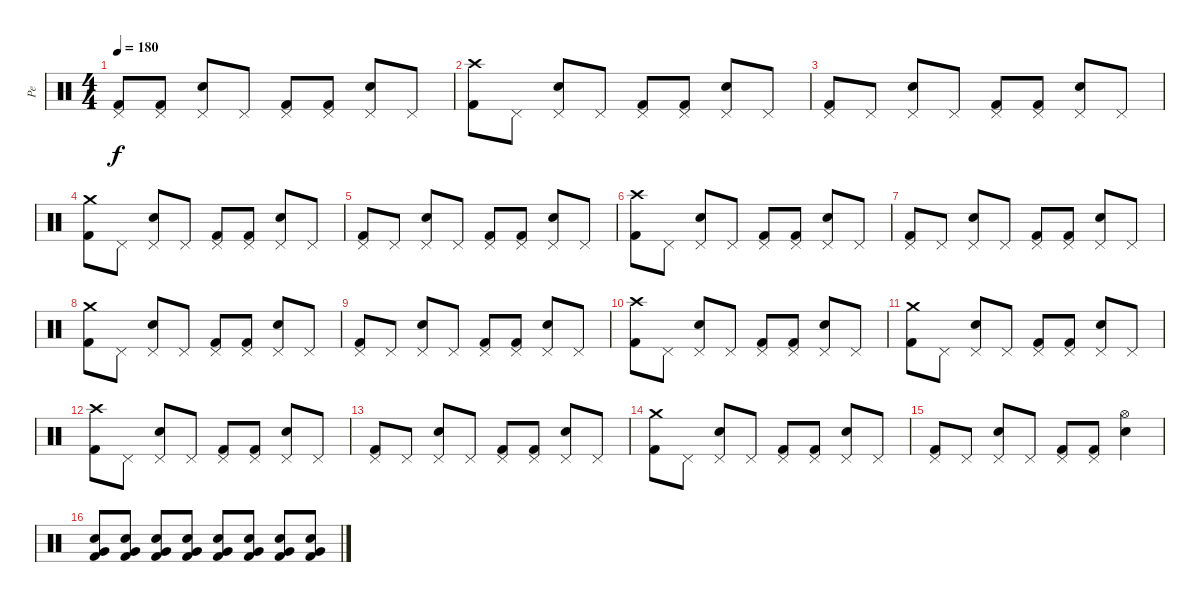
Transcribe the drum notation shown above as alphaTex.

\track ("Pe" "Pe") {instrument percussion}
\staff {score}
\articulation defaults
\ts (4 4)
\tempo 180
\clef neutral
\ks c
("Pedal Hi-Hat (hit)" "Kick (hit) 2").8{dy f} ("Pedal Hi-Hat (hit)" "Kick (hit) 2").8 ("Pedal Hi-Hat (hit)" "Electric Snare (hit)").8 "Pedal Hi-Hat (hit)".8 ("Pedal Hi-Hat (hit)" "Kick (hit) 2").8 ("Pedal Hi-Hat (hit)" "Kick (hit) 2").8 ("Pedal Hi-Hat (hit)" "Electric Snare (hit)").8 "Pedal Hi-Hat (hit)".8 |
("Crash high (hit)" "Kick (hit) 2").8 "Pedal Hi-Hat (hit)".8 ("Pedal Hi-Hat (hit)" "Electric Snare (hit)").8 "Pedal Hi-Hat (hit)".8 ("Pedal Hi-Hat (hit)" "Kick (hit) 2").8 ("Pedal Hi-Hat (hit)" "Kick (hit) 2").8 ("Pedal Hi-Hat (hit)" "Electric Snare (hit)").8 "Pedal Hi-Hat (hit)".8 |
("Pedal Hi-Hat (hit)" "Kick (hit) 2").8 "Pedal Hi-Hat (hit)".8 ("Pedal Hi-Hat (hit)" "Electric Snare (hit)").8 "Pedal Hi-Hat (hit)".8 ("Pedal Hi-Hat (hit)" "Kick (hit) 2").8 ("Pedal Hi-Hat (hit)" "Kick (hit) 2").8 ("Pedal Hi-Hat (hit)" "Electric Snare (hit)").8 "Pedal Hi-Hat (hit)".8 |
("Crash medium (hit)" "Kick (hit) 2").8 "Pedal Hi-Hat (hit)".8 ("Pedal Hi-Hat (hit)" "Electric Snare (hit)").8 "Pedal Hi-Hat (hit)".8 ("Pedal Hi-Hat (hit)" "Kick (hit) 2").8 ("Pedal Hi-Hat (hit)" "Kick (hit) 2").8 ("Pedal Hi-Hat (hit)" "Electric Snare (hit)").8 "Pedal Hi-Hat (hit)".8 |
("Pedal Hi-Hat (hit)" "Kick (hit) 2").8 "Pedal Hi-Hat (hit)".8 ("Pedal Hi-Hat (hit)" "Electric Snare (hit)").8 "Pedal Hi-Hat (hit)".8 ("Pedal Hi-Hat (hit)" "Kick (hit) 2").8 ("Pedal Hi-Hat (hit)" "Kick (hit) 2").8 ("Pedal Hi-Hat (hit)" "Electric Snare (hit)").8 "Pedal Hi-Hat (hit)".8 |
("Crash high (hit)" "Kick (hit) 2").8 "Pedal Hi-Hat (hit)".8 ("Pedal Hi-Hat (hit)" "Electric Snare (hit)").8 "Pedal Hi-Hat (hit)".8 ("Pedal Hi-Hat (hit)" "Kick (hit) 2").8 ("Pedal Hi-Hat (hit)" "Kick (hit) 2").8 ("Pedal Hi-Hat (hit)" "Electric Snare (hit)").8 "Pedal Hi-Hat (hit)".8 |
("Pedal Hi-Hat (hit)" "Kick (hit) 2").8 "Pedal Hi-Hat (hit)".8 ("Pedal Hi-Hat (hit)" "Electric Snare (hit)").8 "Pedal Hi-Hat (hit)".8 ("Pedal Hi-Hat (hit)" "Kick (hit) 2").8 ("Pedal Hi-Hat (hit)" "Kick (hit) 2").8 ("Pedal Hi-Hat (hit)" "Electric Snare (hit)").8 "Pedal Hi-Hat (hit)".8 |
("Crash medium (hit)" "Kick (hit) 2").8 "Pedal Hi-Hat (hit)".8 ("Pedal Hi-Hat (hit)" "Electric Snare (hit)").8 "Pedal Hi-Hat (hit)".8 ("Pedal Hi-Hat (hit)" "Kick (hit) 2").8 ("Pedal Hi-Hat (hit)" "Kick (hit) 2").8 ("Pedal Hi-Hat (hit)" "Electric Snare (hit)").8 "Pedal Hi-Hat (hit)".8 |
("Pedal Hi-Hat (hit)" "Kick (hit) 2").8 "Pedal Hi-Hat (hit)".8 ("Pedal Hi-Hat (hit)" "Electric Snare (hit)").8 "Pedal Hi-Hat (hit)".8 ("Pedal Hi-Hat (hit)" "Kick (hit) 2").8 ("Pedal Hi-Hat (hit)" "Kick (hit) 2").8 ("Pedal Hi-Hat (hit)" "Electric Snare (hit)").8 "Pedal Hi-Hat (hit)".8 |
("Crash high (hit)" "Kick (hit) 2").8 "Pedal Hi-Hat (hit)".8 ("Pedal Hi-Hat (hit)" "Electric Snare (hit)").8 "Pedal Hi-Hat (hit)".8 ("Pedal Hi-Hat (hit)" "Kick (hit) 2").8 ("Pedal Hi-Hat (hit)" "Kick (hit) 2").8 ("Pedal Hi-Hat (hit)" "Electric Snare (hit)").8 "Pedal Hi-Hat (hit)".8 |
("Crash medium (hit)" "Kick (hit) 2").8 "Pedal Hi-Hat (hit)".8 ("Pedal Hi-Hat (hit)" "Electric Snare (hit)").8 "Pedal Hi-Hat (hit)".8 ("Pedal Hi-Hat (hit)" "Kick (hit) 2").8 ("Pedal Hi-Hat (hit)" "Kick (hit) 2").8 ("Pedal Hi-Hat (hit)" "Electric Snare (hit)").8 "Pedal Hi-Hat (hit)".8 |
("Crash high (hit)" "Kick (hit) 2").8 "Pedal Hi-Hat (hit)".8 ("Pedal Hi-Hat (hit)" "Electric Snare (hit)").8 "Pedal Hi-Hat (hit)".8 ("Pedal Hi-Hat (hit)" "Kick (hit) 2").8 ("Pedal Hi-Hat (hit)" "Kick (hit) 2").8 ("Pedal Hi-Hat (hit)" "Electric Snare (hit)").8 "Pedal Hi-Hat (hit)".8 |
("Pedal Hi-Hat (hit)" "Kick (hit) 2").8 "Pedal Hi-Hat (hit)".8 ("Pedal Hi-Hat (hit)" "Electric Snare (hit)").8 "Pedal Hi-Hat (hit)".8 ("Pedal Hi-Hat (hit)" "Kick (hit) 2").8 ("Pedal Hi-Hat (hit)" "Kick (hit) 2").8 ("Pedal Hi-Hat (hit)" "Electric Snare (hit)").8 "Pedal Hi-Hat (hit)".8 |
("Crash medium (hit)" "Kick (hit) 2").8 "Pedal Hi-Hat (hit)".8 ("Pedal Hi-Hat (hit)" "Electric Snare (hit)").8 "Pedal Hi-Hat (hit)".8 ("Pedal Hi-Hat (hit)" "Kick (hit) 2").8 ("Pedal Hi-Hat (hit)" "Kick (hit) 2").8 ("Pedal Hi-Hat (hit)" "Electric Snare (hit)").8 "Pedal Hi-Hat (hit)".8 |
("Pedal Hi-Hat (hit)" "Kick (hit) 2").8 "Pedal Hi-Hat (hit)".8 ("Pedal Hi-Hat (hit)" "Electric Snare (hit)").8 "Pedal Hi-Hat (hit)".8 ("Pedal Hi-Hat (hit)" "Kick (hit) 2").8 ("Pedal Hi-Hat (hit)" "Kick (hit) 2").8 ("Hi-Hat (open)" "Electric Snare (hit)").4 |
("Electric Snare (hit)" "Very Low Tom (hit)" "Kick (hit) 2").8 ("Electric Snare (hit)" "Very Low Tom (hit)" "Kick (hit) 2").8 ("Electric Snare (hit)" "Very Low Tom (hit)" "Kick (hit) 2").8 ("Electric Snare (hit)" "Very Low Tom (hit)" "Kick (hit) 2").8 ("Electric Snare (hit)" "Very Low Tom (hit)" "Kick (hit) 2").8 ("Electric Snare (hit)" "Very Low Tom (hit)" "Kick (hit) 2").8 ("Electric Snare (hit)" "Very Low Tom (hit)" "Kick (hit) 2").8 ("Electric Snare (hit)" "Very Low Tom (hit)" "Kick (hit) 2").8
